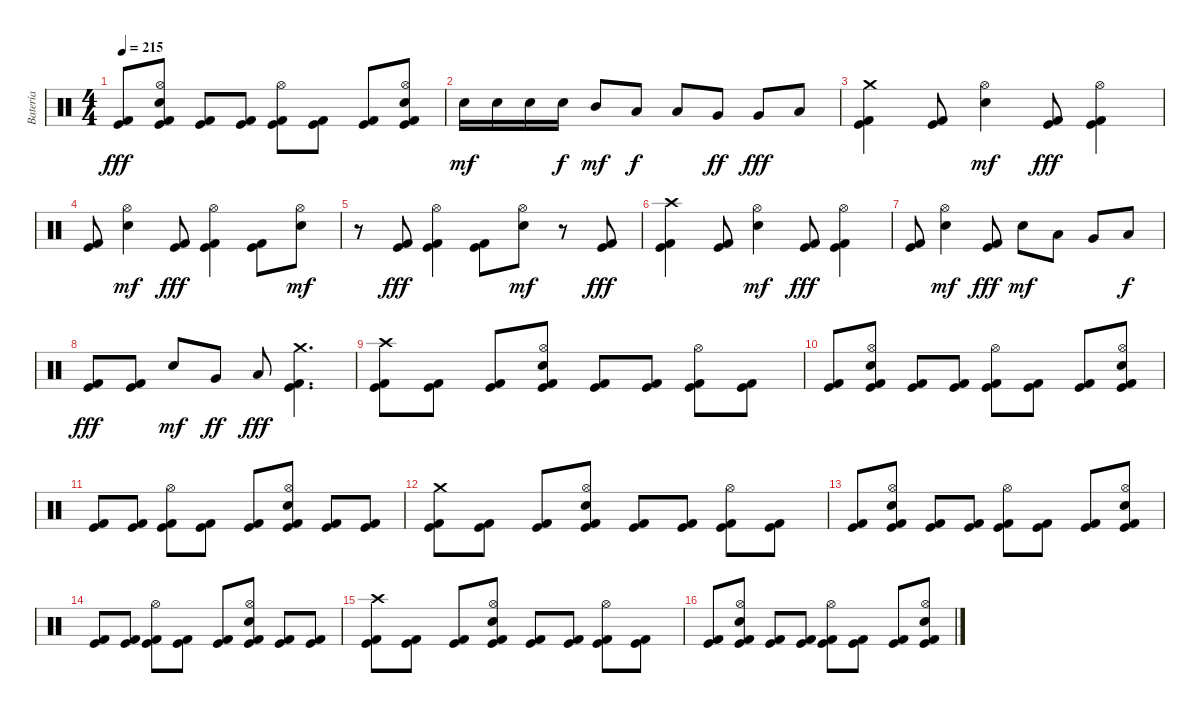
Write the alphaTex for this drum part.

\track ("Batería" "Batería") {instrument percussion}
\staff {score}
\articulation defaults
\ts (4 4)
\tempo 215
\clef neutral
\ks c
("Kick (hit) 2" "Kick (hit)").8{dy fff} ("Hi-Hat (open)" "Electric Snare (hit)" "Kick (hit) 2" "Kick (hit)").8 ("Kick (hit) 2" "Kick (hit)").8 ("Kick (hit) 2" "Kick (hit)").8 ("Hi-Hat (open)" "Kick (hit) 2" "Kick (hit)").8 ("Kick (hit) 2" "Kick (hit)").8 ("Kick (hit) 2" "Kick (hit)").8 ("Hi-Hat (open)" "Electric Snare (hit)" "Kick (hit) 2" "Kick (hit)").8 |
"Electric Snare (hit)".16{dy mf} "Electric Snare (hit)".16 "Electric Snare (hit)".16 "Electric Snare (hit)".16{dy f} "Mid Tom (hit)".8{dy mf} "Low Tom (hit)".8{dy f} "Low Tom (hit)".8 "Very Low Tom (hit)".8{dy ff} "Very Low Tom (hit)".8{dy fff} "Low Floor Tom (hit)".8 |
("Crash medium (hit)" "Kick (hit) 2" "Kick (hit)").4 ("Kick (hit) 2" "Kick (hit)").8 ("Hi-Hat (open)" "Electric Snare (hit)").4{dy mf} ("Kick (hit) 2" "Kick (hit)").8{dy fff} ("Hi-Hat (open)" "Kick (hit) 2" "Kick (hit)").4 |
("Kick (hit) 2" "Kick (hit)").8 ("Hi-Hat (open)" "Electric Snare (hit)").4{dy mf} ("Kick (hit) 2" "Kick (hit)").8{dy fff} ("Hi-Hat (open)" "Kick (hit) 2" "Kick (hit)").4 ("Kick (hit) 2" "Kick (hit)").8 ("Hi-Hat (open)" "Electric Snare (hit)").8{dy mf} |
r.8 ("Kick (hit) 2" "Kick (hit)").8{dy fff} ("Hi-Hat (open)" "Kick (hit) 2" "Kick (hit)").4 ("Kick (hit) 2" "Kick (hit)").8 ("Hi-Hat (open)" "Electric Snare (hit)").8{dy mf} r.8 ("Kick (hit) 2" "Kick (hit)").8{dy fff} |
("Crash high (hit)" "Kick (hit) 2" "Kick (hit)").4 ("Kick (hit) 2" "Kick (hit)").8 ("Hi-Hat (open)" "Electric Snare (hit)").4{dy mf} ("Kick (hit) 2" "Kick (hit)").8{dy fff} ("Hi-Hat (open)" "Kick (hit) 2" "Kick (hit)").4 |
("Kick (hit) 2" "Kick (hit)").8 ("Hi-Hat (open)" "Electric Snare (hit)").4{dy mf} ("Kick (hit) 2" "Kick (hit)").8{dy fff} "Electric Snare (hit)".8{dy mf} "Low Tom (hit)".8 "Very Low Tom (hit)".8 "Low Floor Tom (hit)".8{dy f} |
("Kick (hit) 2" "Kick (hit)").8{dy fff} ("Kick (hit) 2" "Kick (hit)").8 "Electric Snare (hit)".8{dy mf} "Very Low Tom (hit)".8{dy ff} "Low Floor Tom (hit)".8{dy fff} ("Crash medium (hit)" "Kick (hit) 2" "Kick (hit)").4{d} |
("Crash high (hit)" "Kick (hit) 2" "Kick (hit)").8 ("Kick (hit) 2" "Kick (hit)").8 ("Kick (hit) 2" "Kick (hit)").8 ("Hi-Hat (open)" "Electric Snare (hit)" "Kick (hit) 2" "Kick (hit)").8 ("Kick (hit) 2" "Kick (hit)").8 ("Kick (hit) 2" "Kick (hit)").8 ("Hi-Hat (open)" "Kick (hit) 2" "Kick (hit)").8 ("Kick (hit) 2" "Kick (hit)").8 |
("Kick (hit) 2" "Kick (hit)").8 ("Hi-Hat (open)" "Electric Snare (hit)" "Kick (hit) 2" "Kick (hit)").8 ("Kick (hit) 2" "Kick (hit)").8 ("Kick (hit) 2" "Kick (hit)").8 ("Hi-Hat (open)" "Kick (hit) 2" "Kick (hit)").8 ("Kick (hit) 2" "Kick (hit)").8 ("Kick (hit) 2" "Kick (hit)").8 ("Hi-Hat (open)" "Electric Snare (hit)" "Kick (hit) 2" "Kick (hit)").8 |
("Kick (hit) 2" "Kick (hit)").8 ("Kick (hit) 2" "Kick (hit)").8 ("Hi-Hat (open)" "Kick (hit) 2" "Kick (hit)").8 ("Kick (hit) 2" "Kick (hit)").8 ("Kick (hit) 2" "Kick (hit)").8 ("Hi-Hat (open)" "Electric Snare (hit)" "Kick (hit) 2" "Kick (hit)").8 ("Kick (hit) 2" "Kick (hit)").8 ("Kick (hit) 2" "Kick (hit)").8 |
("Crash medium (hit)" "Kick (hit) 2" "Kick (hit)").8 ("Kick (hit) 2" "Kick (hit)").8 ("Kick (hit) 2" "Kick (hit)").8 ("Hi-Hat (open)" "Electric Snare (hit)" "Kick (hit) 2" "Kick (hit)").8 ("Kick (hit) 2" "Kick (hit)").8 ("Kick (hit) 2" "Kick (hit)").8 ("Hi-Hat (open)" "Kick (hit) 2" "Kick (hit)").8 ("Kick (hit) 2" "Kick (hit)").8 |
("Kick (hit) 2" "Kick (hit)").8 ("Hi-Hat (open)" "Electric Snare (hit)" "Kick (hit) 2" "Kick (hit)").8 ("Kick (hit) 2" "Kick (hit)").8 ("Kick (hit) 2" "Kick (hit)").8 ("Hi-Hat (open)" "Kick (hit) 2" "Kick (hit)").8 ("Kick (hit) 2" "Kick (hit)").8 ("Kick (hit) 2" "Kick (hit)").8 ("Hi-Hat (open)" "Electric Snare (hit)" "Kick (hit) 2" "Kick (hit)").8 |
("Kick (hit) 2" "Kick (hit)").8 ("Kick (hit) 2" "Kick (hit)").8 ("Hi-Hat (open)" "Kick (hit) 2" "Kick (hit)").8 ("Kick (hit) 2" "Kick (hit)").8 ("Kick (hit) 2" "Kick (hit)").8 ("Hi-Hat (open)" "Electric Snare (hit)" "Kick (hit) 2" "Kick (hit)").8 ("Kick (hit) 2" "Kick (hit)").8 ("Kick (hit) 2" "Kick (hit)").8 |
("Crash high (hit)" "Kick (hit) 2" "Kick (hit)").8 ("Kick (hit) 2" "Kick (hit)").8 ("Kick (hit) 2" "Kick (hit)").8 ("Hi-Hat (open)" "Electric Snare (hit)" "Kick (hit) 2" "Kick (hit)").8 ("Kick (hit) 2" "Kick (hit)").8 ("Kick (hit) 2" "Kick (hit)").8 ("Hi-Hat (open)" "Kick (hit) 2" "Kick (hit)").8 ("Kick (hit) 2" "Kick (hit)").8 |
("Kick (hit) 2" "Kick (hit)").8 ("Hi-Hat (open)" "Electric Snare (hit)" "Kick (hit) 2" "Kick (hit)").8 ("Kick (hit) 2" "Kick (hit)").8 ("Kick (hit) 2" "Kick (hit)").8 ("Hi-Hat (open)" "Kick (hit) 2" "Kick (hit)").8 ("Kick (hit) 2" "Kick (hit)").8 ("Kick (hit) 2" "Kick (hit)").8 ("Hi-Hat (open)" "Electric Snare (hit)" "Kick (hit) 2" "Kick (hit)").8
